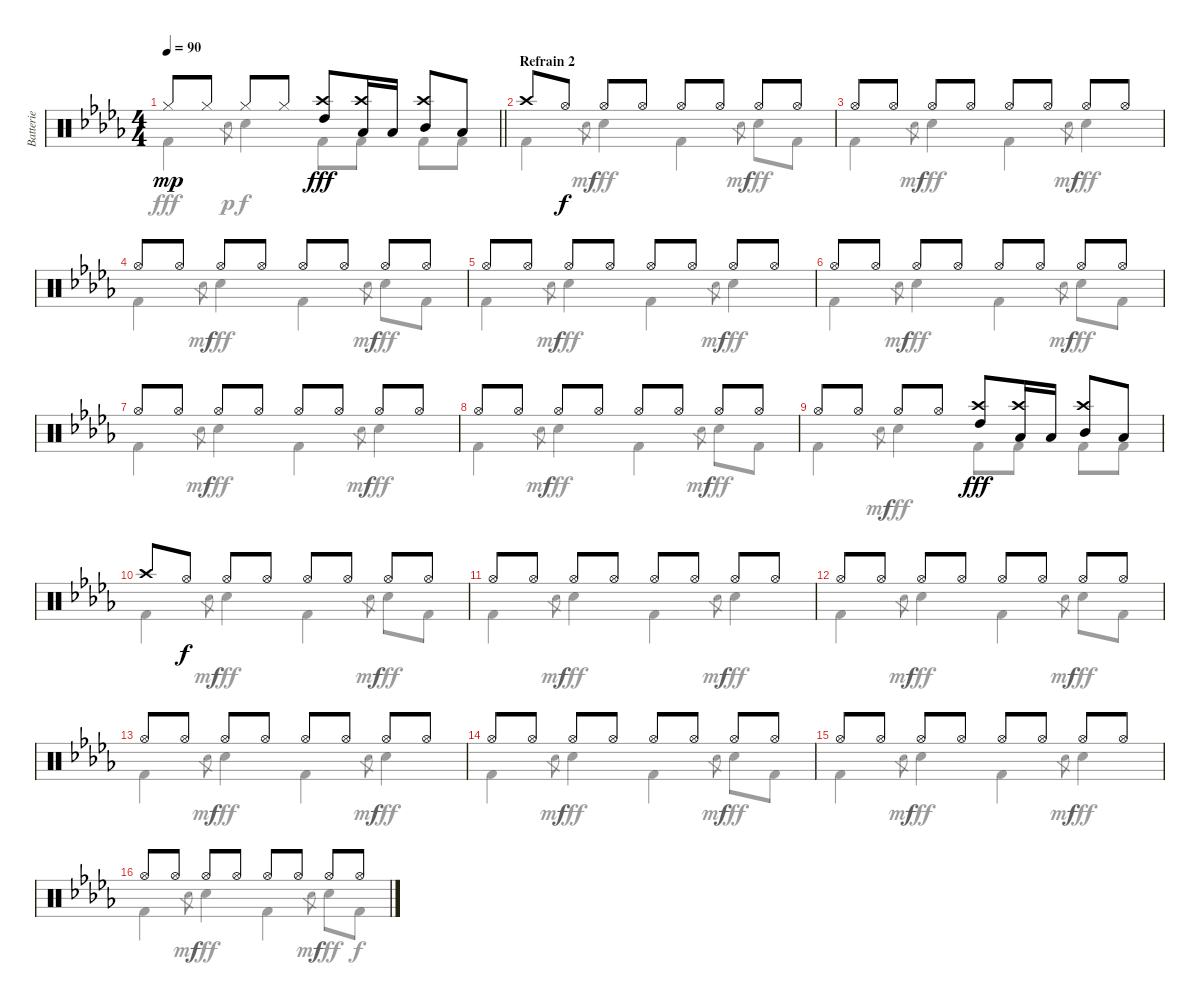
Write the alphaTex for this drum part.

\track ("Batterie" "Batterie") {instrument percussion}
\staff {score}
\articulation defaults
\voice
\ts (4 4)
\tempo 90
\clef neutral
\barLineRight lightlight
\ks db "Hi-Hat (closed)".8{dy mp} "Hi-Hat (closed)".8 "Hi-Hat (closed)".8 "Hi-Hat (closed)".8
("High Tom (hit)" "Crash high (hit)").8{dy fff} ("Low Tom (hit)" "Crash high (hit)").16 "Low Tom (hit)".16 ("Mid Tom (hit)" "Crash high (hit)").8 "Low Tom (hit)".8 |
\section ("" "Refrain 2")
"Crash high (hit)".8 "Hi-Hat (open)".8{dy f} "Hi-Hat (open)".8 "Hi-Hat (open)".8 "Hi-Hat (open)".8 "Hi-Hat (open)".8 "Hi-Hat (open)".8 "Hi-Hat (open)".8 |
"Hi-Hat (open)".8 "Hi-Hat (open)".8 "Hi-Hat (open)".8 "Hi-Hat (open)".8 "Hi-Hat (open)".8 "Hi-Hat (open)".8 "Hi-Hat (open)".8 "Hi-Hat (open)".8 |
"Hi-Hat (open)".8 "Hi-Hat (open)".8 "Hi-Hat (open)".8 "Hi-Hat (open)".8 "Hi-Hat (open)".8 "Hi-Hat (open)".8 "Hi-Hat (open)".8 "Hi-Hat (open)".8 |
"Hi-Hat (open)".8 "Hi-Hat (open)".8 "Hi-Hat (open)".8 "Hi-Hat (open)".8 "Hi-Hat (open)".8 "Hi-Hat (open)".8 "Hi-Hat (open)".8 "Hi-Hat (open)".8 |
"Hi-Hat (open)".8 "Hi-Hat (open)".8 "Hi-Hat (open)".8 "Hi-Hat (open)".8 "Hi-Hat (open)".8 "Hi-Hat (open)".8 "Hi-Hat (open)".8 "Hi-Hat (open)".8 |
"Hi-Hat (open)".8 "Hi-Hat (open)".8 "Hi-Hat (open)".8 "Hi-Hat (open)".8 "Hi-Hat (open)".8 "Hi-Hat (open)".8 "Hi-Hat (open)".8 "Hi-Hat (open)".8 |
"Hi-Hat (open)".8 "Hi-Hat (open)".8 "Hi-Hat (open)".8 "Hi-Hat (open)".8 "Hi-Hat (open)".8 "Hi-Hat (open)".8 "Hi-Hat (open)".8 "Hi-Hat (open)".8 |
"Hi-Hat (open)".8 "Hi-Hat (open)".8 "Hi-Hat (open)".8 "Hi-Hat (open)".8 ("High Tom (hit)" "Crash high (hit)").8{dy fff} ("Low Tom (hit)" "Crash high (hit)").16 "Low Tom (hit)".16 ("Mid Tom (hit)" "Crash high (hit)").8 "Low Tom (hit)".8 |
"Crash high (hit)".8 "Hi-Hat (open)".8{dy f} "Hi-Hat (open)".8 "Hi-Hat (open)".8 "Hi-Hat (open)".8 "Hi-Hat (open)".8 "Hi-Hat (open)".8 "Hi-Hat (open)".8 |
"Hi-Hat (open)".8 "Hi-Hat (open)".8 "Hi-Hat (open)".8 "Hi-Hat (open)".8 "Hi-Hat (open)".8 "Hi-Hat (open)".8 "Hi-Hat (open)".8 "Hi-Hat (open)".8 |
"Hi-Hat (open)".8 "Hi-Hat (open)".8 "Hi-Hat (open)".8 "Hi-Hat (open)".8 "Hi-Hat (open)".8 "Hi-Hat (open)".8 "Hi-Hat (open)".8 "Hi-Hat (open)".8 |
"Hi-Hat (open)".8 "Hi-Hat (open)".8 "Hi-Hat (open)".8 "Hi-Hat (open)".8 "Hi-Hat (open)".8 "Hi-Hat (open)".8 "Hi-Hat (open)".8 "Hi-Hat (open)".8 |
"Hi-Hat (open)".8 "Hi-Hat (open)".8 "Hi-Hat (open)".8 "Hi-Hat (open)".8 "Hi-Hat (open)".8 "Hi-Hat (open)".8 "Hi-Hat (open)".8 "Hi-Hat (open)".8 |
"Hi-Hat (open)".8 "Hi-Hat (open)".8 "Hi-Hat (open)".8 "Hi-Hat (open)".8 "Hi-Hat (open)".8 "Hi-Hat (open)".8 "Hi-Hat (open)".8 "Hi-Hat (open)".8 |
"Hi-Hat (open)".8 "Hi-Hat (open)".8 "Hi-Hat (open)".8 "Hi-Hat (open)".8 "Hi-Hat (open)".8 "Hi-Hat (open)".8 "Hi-Hat (open)".8 "Hi-Hat (open)".8
\voice
\clef neutral
\ottava regular
\simile none
\barLineRight lightlight
\ks db "Kick (hit) 2".4{dy fff} "Hand Clap (hit)".8{gr dy p} "Hand Clap (hit)".4{dy f} "Kick (hit) 2".8{dy fff} "Kick (hit) 2".8 "Kick (hit) 2".8 "Kick (hit) 2".8
|
"Kick (hit) 2".4 "Hand Clap (hit)".8{gr dy mf} "Hand Clap (hit)".4{dy fff} "Kick (hit) 2".4 "Hand Clap (hit)".8{gr dy mf} "Hand Clap (hit)".8{dy fff} "Kick (hit) 2".8 |
"Kick (hit) 2".4 "Hand Clap (hit)".8{gr dy mf} "Hand Clap (hit)".4{dy fff} "Kick (hit) 2".4 "Hand Clap (hit)".8{gr dy mf} "Hand Clap (hit)".4{dy fff} |
"Kick (hit) 2".4 "Hand Clap (hit)".8{gr dy mf} "Hand Clap (hit)".4{dy fff} "Kick (hit) 2".4 "Hand Clap (hit)".8{gr dy mf} "Hand Clap (hit)".8{dy fff} "Kick (hit) 2".8 |
"Kick (hit) 2".4 "Hand Clap (hit)".8{gr dy mf} "Hand Clap (hit)".4{dy fff} "Kick (hit) 2".4 "Hand Clap (hit)".8{gr dy mf} "Hand Clap (hit)".4{dy fff} |
"Kick (hit) 2".4 "Hand Clap (hit)".8{gr dy mf} "Hand Clap (hit)".4{dy fff} "Kick (hit) 2".4 "Hand Clap (hit)".8{gr dy mf} "Hand Clap (hit)".8{dy fff} "Kick (hit) 2".8 |
"Kick (hit) 2".4 "Hand Clap (hit)".8{gr dy mf} "Hand Clap (hit)".4{dy fff} "Kick (hit) 2".4 "Hand Clap (hit)".8{gr dy mf} "Hand Clap (hit)".4{dy fff} |
"Kick (hit) 2".4 "Hand Clap (hit)".8{gr dy mf} "Hand Clap (hit)".4{dy fff} "Kick (hit) 2".4 "Hand Clap (hit)".8{gr dy mf} "Hand Clap (hit)".8{dy fff} "Kick (hit) 2".8 |
"Kick (hit) 2".4 "Hand Clap (hit)".8{gr dy mf} "Hand Clap (hit)".4{dy fff} "Kick (hit) 2".8 "Kick (hit) 2".8 "Kick (hit) 2".8 "Kick (hit) 2".8 |
"Kick (hit) 2".4 "Hand Clap (hit)".8{gr dy mf} "Hand Clap (hit)".4{dy fff} "Kick (hit) 2".4 "Hand Clap (hit)".8{gr dy mf} "Hand Clap (hit)".8{dy fff} "Kick (hit) 2".8 |
"Kick (hit) 2".4 "Hand Clap (hit)".8{gr dy mf} "Hand Clap (hit)".4{dy fff} "Kick (hit) 2".4 "Hand Clap (hit)".8{gr dy mf} "Hand Clap (hit)".4{dy fff} |
"Kick (hit) 2".4 "Hand Clap (hit)".8{gr dy mf} "Hand Clap (hit)".4{dy fff} "Kick (hit) 2".4 "Hand Clap (hit)".8{gr dy mf} "Hand Clap (hit)".8{dy fff} "Kick (hit) 2".8 |
"Kick (hit) 2".4 "Hand Clap (hit)".8{gr dy mf} "Hand Clap (hit)".4{dy fff} "Kick (hit) 2".4 "Hand Clap (hit)".8{gr dy mf} "Hand Clap (hit)".4{dy fff} |
"Kick (hit) 2".4 "Hand Clap (hit)".8{gr dy mf} "Hand Clap (hit)".4{dy fff} "Kick (hit) 2".4 "Hand Clap (hit)".8{gr dy mf} "Hand Clap (hit)".8{dy fff} "Kick (hit) 2".8 |
"Kick (hit) 2".4 "Hand Clap (hit)".8{gr dy mf} "Hand Clap (hit)".4{dy fff} "Kick (hit) 2".4 "Hand Clap (hit)".8{gr dy mf} "Hand Clap (hit)".4{dy fff} |
"Kick (hit) 2".4 "Hand Clap (hit)".8{gr dy mf} "Hand Clap (hit)".4{dy fff} "Kick (hit) 2".4 "Hand Clap (hit)".8{gr dy mf} "Hand Clap (hit)".8{dy fff} "Kick (hit) 2".8{dy f}
